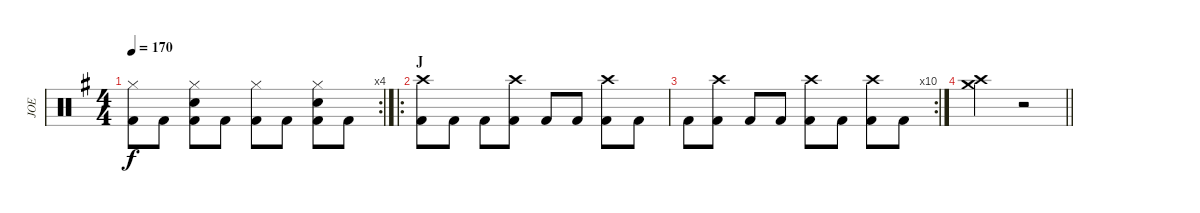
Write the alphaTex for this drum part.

\track ("JOE" "JOE") {instrument percussion}
\staff {score}
\articulation defaults
\rc 4
\ts (4 4)
\tempo 170
\clef neutral
\ks eminor
("Hi-Hat (closed)" "Kick (hit) 2").8{dy f} "Kick (hit) 2".8 ("Hi-Hat (closed)" "Snare (hit) 2" "Kick (hit) 2").8 "Kick (hit) 2".8 ("Hi-Hat (closed)" "Kick (hit) 2").8 "Kick (hit) 2".8 ("Hi-Hat (closed)" "Snare (hit) 2" "Kick (hit) 2").8 "Kick (hit) 2".8 |
\ro
\section ("" "J")
("Crash high (hit)" "Kick (hit) 2").8 "Kick (hit) 2".8 "Kick (hit) 2".8 ("Crash high (hit)" "Kick (hit) 2").8 "Kick (hit) 2".8 "Kick (hit) 2".8 ("Crash high (hit)" "Kick (hit) 2").8 "Kick (hit) 2".8 |
\rc 10 "Kick (hit) 2".8
("Crash high (hit)" "Kick (hit) 2").8 "Kick (hit) 2".8 "Kick (hit) 2".8 ("Crash high (hit)" "Kick (hit) 2").8 "Kick (hit) 2".8 ("Crash high (hit)" "Kick (hit) 2").8 "Kick (hit) 2".8 |
\barLineRight lightlight
("Crash medium (hit)" "Crash high (hit)").2 r.2
